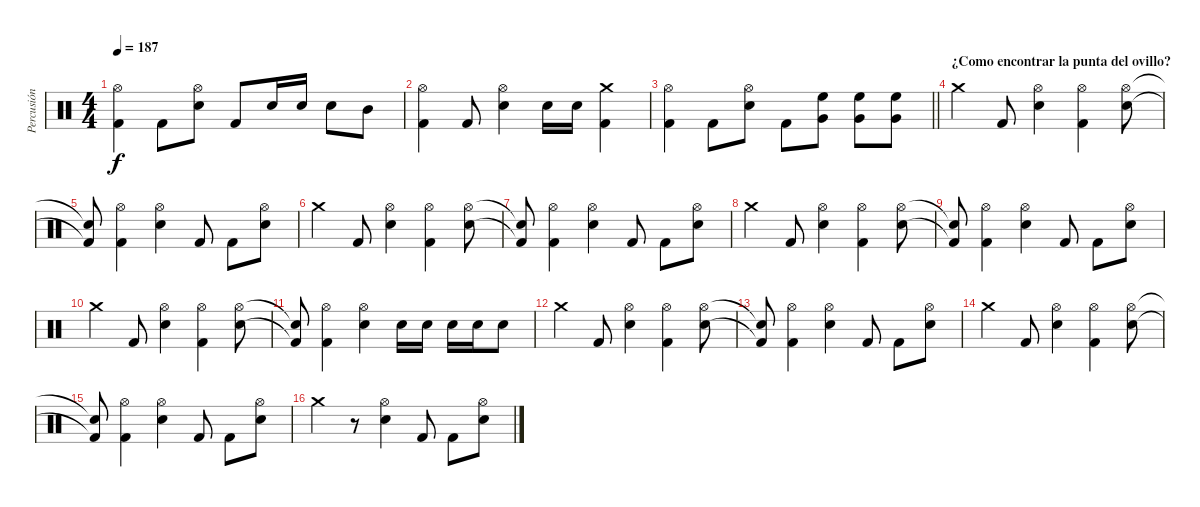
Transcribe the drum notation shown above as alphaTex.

\track ("Percusión" "Percusión") {instrument percussion}
\staff {score}
\articulation defaults
\ts (4 4)
\tempo 187
\clef neutral
\ks c
("Hi-Hat (open)" "Kick (hit) 2").4{dy f} "Kick (hit) 2".8 ("Hi-Hat (open)" "Snare (hit) 2").8 "Kick (hit) 2".8 "Snare (hit) 2".16 "Snare (hit) 2".16 "Snare (hit) 2".8 "Mid Tom (hit)".8 |
("Hi-Hat (open)" "Kick (hit) 2").4 "Kick (hit) 2".8 ("Hi-Hat (open)" "Snare (hit) 2").4 "Snare (hit) 2".16 "Snare (hit) 2".16 ("Crash medium (hit)" "Kick (hit) 2").4 |
\barLineRight lightlight
("Hi-Hat (open)" "Kick (hit) 2").4 "Kick (hit) 2".8 ("Hi-Hat (open)" "Snare (hit) 2").8 "Kick (hit) 2".8 ("Very Low Tom (hit)" "High Floor Tom (hit)").8 ("Very Low Tom (hit)" "High Floor Tom (hit)").8 ("Very Low Tom (hit)" "High Floor Tom (hit)").8 |
\section ("" "¿Como encontrar la punta del ovillo?")
"Crash medium (hit)".4 "Kick (hit) 2".8 ("Hi-Hat (open)" "Snare (hit) 2").4 ("Hi-Hat (open)" "Kick (hit) 2").4 ("Hi-Hat (open)" "Snare (hit) 2").8 |
("Snare (hit)"{t} "Kick (hit) 2"{t}).8 ("Hi-Hat (open)" "Kick (hit) 2").4 ("Hi-Hat (open)" "Snare (hit) 2").4 "Kick (hit) 2".8 "Kick (hit) 2".8 ("Hi-Hat (open)" "Snare (hit) 2").8 |
"Crash medium (hit)".4 "Kick (hit) 2".8 ("Hi-Hat (open)" "Snare (hit) 2").4 ("Hi-Hat (open)" "Kick (hit) 2").4 ("Hi-Hat (open)" "Snare (hit) 2").8 |
("Snare (hit)"{t} "Kick (hit) 2"{t}).8 ("Hi-Hat (open)" "Kick (hit) 2").4 ("Hi-Hat (open)" "Snare (hit) 2").4 "Kick (hit) 2".8 "Kick (hit) 2".8 ("Hi-Hat (open)" "Snare (hit) 2").8 |
"Crash medium (hit)".4 "Kick (hit) 2".8 ("Hi-Hat (open)" "Snare (hit) 2").4 ("Hi-Hat (open)" "Kick (hit) 2").4 ("Hi-Hat (open)" "Snare (hit) 2").8 |
("Snare (hit)"{t} "Kick (hit) 2"{t}).8 ("Hi-Hat (open)" "Kick (hit) 2").4 ("Hi-Hat (open)" "Snare (hit) 2").4 "Kick (hit) 2".8 "Kick (hit) 2".8 ("Hi-Hat (open)" "Snare (hit) 2").8 |
"Crash medium (hit)".4 "Kick (hit) 2".8 ("Hi-Hat (open)" "Snare (hit) 2").4 ("Hi-Hat (open)" "Kick (hit) 2").4 ("Hi-Hat (open)" "Snare (hit) 2").8 |
("Snare (hit)"{t} "Kick (hit) 2"{t}).8 ("Hi-Hat (open)" "Kick (hit) 2").4 ("Hi-Hat (open)" "Snare (hit) 2").4 "Snare (hit) 2".16 "Snare (hit) 2".16 "Snare (hit) 2".16 "Snare (hit) 2".16 "Snare (hit) 2".8 |
"Crash medium (hit)".4 "Kick (hit) 2".8 ("Hi-Hat (open)" "Snare (hit) 2").4 ("Hi-Hat (open)" "Kick (hit) 2").4 ("Hi-Hat (open)" "Snare (hit) 2").8 |
("Snare (hit)"{t} "Kick (hit) 2"{t}).8 ("Hi-Hat (open)" "Kick (hit) 2").4 ("Hi-Hat (open)" "Snare (hit) 2").4 "Kick (hit) 2".8 "Kick (hit) 2".8 ("Hi-Hat (open)" "Snare (hit) 2").8 |
"Crash medium (hit)".4 "Kick (hit) 2".8 ("Hi-Hat (open)" "Snare (hit) 2").4 ("Hi-Hat (open)" "Kick (hit) 2").4 ("Hi-Hat (open)" "Snare (hit) 2").8 |
("Snare (hit)"{t} "Kick (hit) 2"{t}).8 ("Hi-Hat (open)" "Kick (hit) 2").4 ("Hi-Hat (open)" "Snare (hit) 2").4 "Kick (hit) 2".8 "Kick (hit) 2".8 ("Hi-Hat (open)" "Snare (hit) 2").8 |
"Crash medium (hit)".4 r.8 ("Hi-Hat (open)" "Snare (hit) 2").4 "Kick (hit) 2".8 "Kick (hit) 2".8 ("Hi-Hat (open)" "Snare (hit) 2").8
